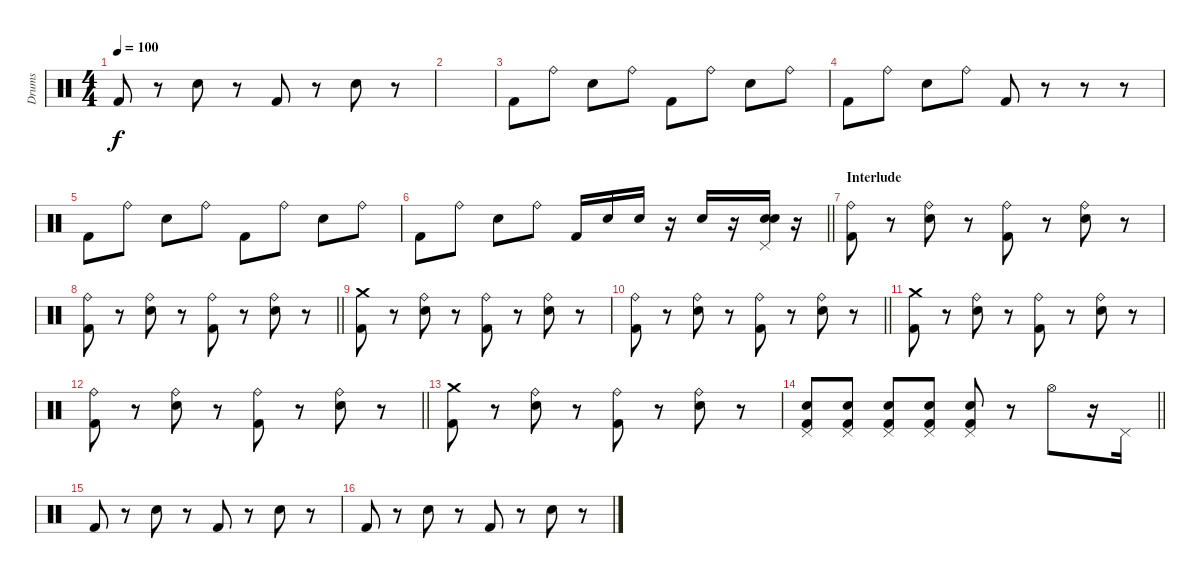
\track ("Drums" "Drums") {instrument percussion}
\staff {score}
\articulation defaults
\ts (4 4)
\tempo 100
\clef neutral
\ks c "Kick (hit) 2".8{dy f}
r.8 "Snare (hit) 2".8 r.8 "Kick (hit) 2".8 r.8 "Snare (hit) 2".8 r.8 |
|
"Kick (hit) 2".8 "Ride (bell)".8 "Snare (hit) 2".8 "Ride (bell)".8 "Kick (hit) 2".8 "Ride (bell)".8 "Snare (hit) 2".8 "Ride (bell)".8 |
"Kick (hit) 2".8 "Ride (bell)".8 "Snare (hit) 2".8 "Ride (bell)".8 "Kick (hit) 2".8 r.8 r.8 r.8 |
"Kick (hit) 2".8 "Ride (bell)".8 "Snare (hit) 2".8 "Ride (bell)".8 "Kick (hit) 2".8 "Ride (bell)".8 "Snare (hit) 2".8 "Ride (bell)".8 |
\barLineRight lightlight "Kick (hit) 2".8 "Ride (bell)".8 "Snare (hit) 2".8 "Ride (bell)".8 "Kick (hit) 2".16 "Snare (hit) 2".16 "Snare (hit) 2".16
r.16 "Snare (hit) 2".16 r.16 ("Pedal Hi-Hat (hit)" "Hand Clap (hit)" "Hand Clap (hit)").16 r.16 |
\section ("" "Interlude")
("Ride (bell)" "Kick (hit) 2").8 r.8 ("Ride (bell)" "Snare (hit) 2").8 r.8 ("Ride (bell)" "Kick (hit) 2").8 r.8 ("Ride (bell)" "Snare (hit) 2").8 r.8 |
\barLineRight lightlight
("Ride (bell)" "Kick (hit) 2").8 r.8 ("Ride (bell)" "Snare (hit) 2").8 r.8 ("Ride (bell)" "Kick (hit) 2").8 r.8 ("Ride (bell)" "Snare (hit) 2").8 r.8 |
("Crash medium (hit)" "Kick (hit) 2").8 r.8 ("Ride (bell)" "Snare (hit) 2").8 r.8 ("Ride (bell)" "Kick (hit) 2").8 r.8 ("Ride (bell)" "Snare (hit) 2").8 r.8 |
\barLineRight lightlight
("Ride (bell)" "Kick (hit) 2").8 r.8 ("Ride (bell)" "Snare (hit) 2").8 r.8 ("Ride (bell)" "Kick (hit) 2").8 r.8 ("Ride (bell)" "Snare (hit) 2").8 r.8 |
("Crash medium (hit)" "Kick (hit) 2").8 r.8 ("Ride (bell)" "Snare (hit) 2").8 r.8 ("Ride (bell)" "Kick (hit) 2").8 r.8 ("Ride (bell)" "Snare (hit) 2").8 r.8 |
\barLineRight lightlight
("Ride (bell)" "Kick (hit) 2").8 r.8 ("Ride (bell)" "Snare (hit) 2").8 r.8 ("Ride (bell)" "Kick (hit) 2").8 r.8 ("Ride (bell)" "Snare (hit) 2").8 r.8 |
("Crash medium (hit)" "Kick (hit) 2").8 r.8 ("Ride (bell)" "Snare (hit) 2").8 r.8 ("Ride (bell)" "Kick (hit) 2").8 r.8 ("Ride (bell)" "Snare (hit) 2").8 r.8 |
\barLineRight lightlight
("Pedal Hi-Hat (hit)" "Snare (hit) 2" "Kick (hit) 2").8 ("Pedal Hi-Hat (hit)" "Snare (hit) 2" "Kick (hit) 2").8 ("Pedal Hi-Hat (hit)" "Snare (hit) 2" "Kick (hit) 2").8 ("Pedal Hi-Hat (hit)" "Snare (hit) 2" "Kick (hit) 2").8 ("Pedal Hi-Hat (hit)" "Snare (hit) 2" "Kick (hit) 2").8 r.8 "Hi-Hat (open)".8 r.16 "Pedal Hi-Hat (hit)".16 |
"Kick (hit) 2".8 r.8 "Snare (hit) 2".8 r.8 "Kick (hit) 2".8 r.8 "Snare (hit) 2".8 r.8 |
"Kick (hit) 2".8 r.8 "Snare (hit) 2".8 r.8 "Kick (hit) 2".8 r.8 "Snare (hit) 2".8 r.8
